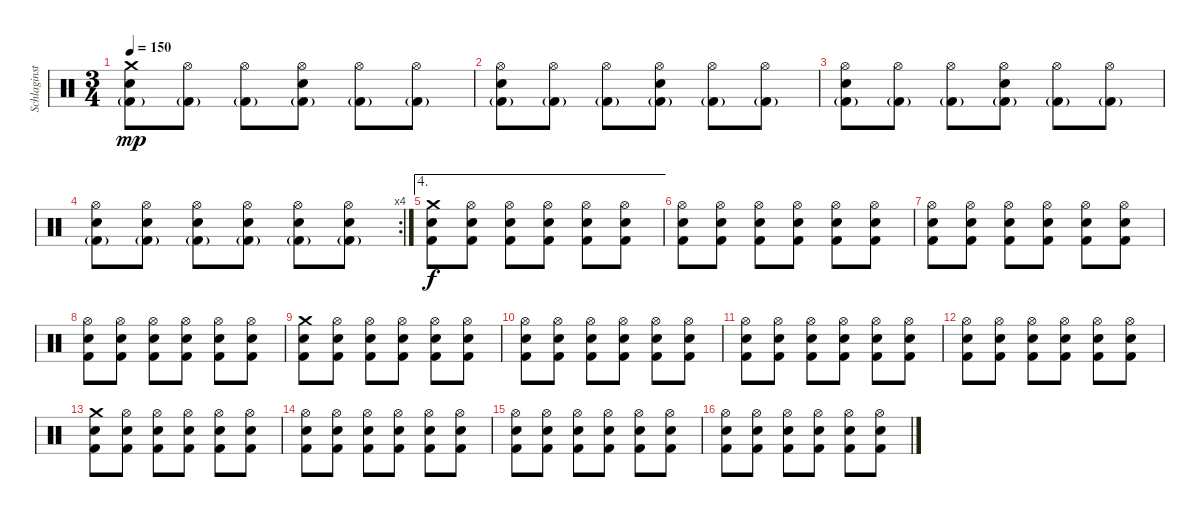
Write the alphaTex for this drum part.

\track ("Schlaginstrumente - Auswahl" "Schlaginst") {instrument percussion}
\staff {score}
\articulation defaults
\ts (3 4)
\tempo 150
\clef neutral
\ks c
("Crash medium (hit)" "Electric Snare (hit)" "Kick (hit) 2"{g}).8{dy mp} ("Hi-Hat (open)" "Kick (hit) 2"{g}).8 ("Hi-Hat (open)" "Kick (hit) 2"{g}).8 ("Hi-Hat (open)" "Electric Snare (hit)" "Kick (hit) 2"{g}).8 ("Hi-Hat (open)" "Kick (hit) 2"{g}).8 ("Hi-Hat (open)" "Kick (hit) 2"{g}).8 |
("Hi-Hat (open)" "Electric Snare (hit)" "Kick (hit) 2"{g}).8 ("Hi-Hat (open)" "Kick (hit) 2"{g}).8 ("Hi-Hat (open)" "Kick (hit) 2"{g}).8 ("Hi-Hat (open)" "Electric Snare (hit)" "Kick (hit) 2"{g}).8 ("Hi-Hat (open)" "Kick (hit) 2"{g}).8 ("Hi-Hat (open)" "Kick (hit) 2"{g}).8 |
("Hi-Hat (open)" "Electric Snare (hit)" "Kick (hit) 2"{g}).8 ("Hi-Hat (open)" "Kick (hit) 2"{g}).8 ("Hi-Hat (open)" "Kick (hit) 2"{g}).8 ("Hi-Hat (open)" "Electric Snare (hit)" "Kick (hit) 2"{g}).8 ("Hi-Hat (open)" "Kick (hit) 2"{g}).8 ("Hi-Hat (open)" "Kick (hit) 2"{g}).8 |
\rc 4
("Hi-Hat (open)" "Electric Snare (hit)" "Kick (hit) 2"{g}).8 ("Hi-Hat (open)" "Electric Snare (hit)" "Kick (hit) 2"{g}).8 ("Hi-Hat (open)" "Electric Snare (hit)" "Kick (hit) 2"{g}).8 ("Hi-Hat (open)" "Electric Snare (hit)" "Kick (hit) 2"{g}).8 ("Hi-Hat (open)" "Electric Snare (hit)" "Kick (hit) 2"{g}).8 ("Hi-Hat (open)" "Electric Snare (hit)" "Kick (hit) 2"{g}).8 |
\ae 4
("Crash medium (hit)" "Electric Snare (hit)" "Kick (hit) 2").8{dy f} ("Hi-Hat (open)" "Electric Snare (hit)" "Kick (hit) 2").8 ("Hi-Hat (open)" "Electric Snare (hit)" "Kick (hit) 2").8 ("Hi-Hat (open)" "Electric Snare (hit)" "Kick (hit) 2").8 ("Hi-Hat (open)" "Electric Snare (hit)" "Kick (hit) 2").8 ("Hi-Hat (open)" "Electric Snare (hit)" "Kick (hit) 2").8 |
("Hi-Hat (open)" "Electric Snare (hit)" "Kick (hit) 2").8 ("Hi-Hat (open)" "Electric Snare (hit)" "Kick (hit) 2").8 ("Hi-Hat (open)" "Electric Snare (hit)" "Kick (hit) 2").8 ("Hi-Hat (open)" "Electric Snare (hit)" "Kick (hit) 2").8 ("Hi-Hat (open)" "Electric Snare (hit)" "Kick (hit) 2").8 ("Hi-Hat (open)" "Electric Snare (hit)" "Kick (hit) 2").8 |
("Hi-Hat (open)" "Electric Snare (hit)" "Kick (hit) 2").8 ("Hi-Hat (open)" "Electric Snare (hit)" "Kick (hit) 2").8 ("Hi-Hat (open)" "Electric Snare (hit)" "Kick (hit) 2").8 ("Hi-Hat (open)" "Electric Snare (hit)" "Kick (hit) 2").8 ("Hi-Hat (open)" "Electric Snare (hit)" "Kick (hit) 2").8 ("Hi-Hat (open)" "Electric Snare (hit)" "Kick (hit) 2").8 |
("Hi-Hat (open)" "Electric Snare (hit)" "Kick (hit) 2").8 ("Hi-Hat (open)" "Electric Snare (hit)" "Kick (hit) 2").8 ("Hi-Hat (open)" "Electric Snare (hit)" "Kick (hit) 2").8 ("Hi-Hat (open)" "Electric Snare (hit)" "Kick (hit) 2").8 ("Hi-Hat (open)" "Electric Snare (hit)" "Kick (hit) 2").8 ("Hi-Hat (open)" "Electric Snare (hit)" "Kick (hit) 2").8 |
("Crash medium (hit)" "Electric Snare (hit)" "Kick (hit) 2").8 ("Hi-Hat (open)" "Electric Snare (hit)" "Kick (hit) 2").8 ("Hi-Hat (open)" "Electric Snare (hit)" "Kick (hit) 2").8 ("Hi-Hat (open)" "Electric Snare (hit)" "Kick (hit) 2").8 ("Hi-Hat (open)" "Electric Snare (hit)" "Kick (hit) 2").8 ("Hi-Hat (open)" "Electric Snare (hit)" "Kick (hit) 2").8 |
("Hi-Hat (open)" "Electric Snare (hit)" "Kick (hit) 2").8 ("Hi-Hat (open)" "Electric Snare (hit)" "Kick (hit) 2").8 ("Hi-Hat (open)" "Electric Snare (hit)" "Kick (hit) 2").8 ("Hi-Hat (open)" "Electric Snare (hit)" "Kick (hit) 2").8 ("Hi-Hat (open)" "Electric Snare (hit)" "Kick (hit) 2").8 ("Hi-Hat (open)" "Electric Snare (hit)" "Kick (hit) 2").8 |
("Hi-Hat (open)" "Electric Snare (hit)" "Kick (hit) 2").8 ("Hi-Hat (open)" "Electric Snare (hit)" "Kick (hit) 2").8 ("Hi-Hat (open)" "Electric Snare (hit)" "Kick (hit) 2").8 ("Hi-Hat (open)" "Electric Snare (hit)" "Kick (hit) 2").8 ("Hi-Hat (open)" "Electric Snare (hit)" "Kick (hit) 2").8 ("Hi-Hat (open)" "Electric Snare (hit)" "Kick (hit) 2").8 |
("Hi-Hat (open)" "Electric Snare (hit)" "Kick (hit) 2").8 ("Hi-Hat (open)" "Electric Snare (hit)" "Kick (hit) 2").8 ("Hi-Hat (open)" "Electric Snare (hit)" "Kick (hit) 2").8 ("Hi-Hat (open)" "Electric Snare (hit)" "Kick (hit) 2").8 ("Hi-Hat (open)" "Electric Snare (hit)" "Kick (hit) 2").8 ("Hi-Hat (open)" "Electric Snare (hit)" "Kick (hit) 2").8 |
("Crash medium (hit)" "Electric Snare (hit)" "Kick (hit) 2").8 ("Hi-Hat (open)" "Electric Snare (hit)" "Kick (hit) 2").8 ("Hi-Hat (open)" "Electric Snare (hit)" "Kick (hit) 2").8 ("Hi-Hat (open)" "Electric Snare (hit)" "Kick (hit) 2").8 ("Hi-Hat (open)" "Electric Snare (hit)" "Kick (hit) 2").8 ("Hi-Hat (open)" "Electric Snare (hit)" "Kick (hit) 2").8 |
("Hi-Hat (open)" "Electric Snare (hit)" "Kick (hit) 2").8 ("Hi-Hat (open)" "Electric Snare (hit)" "Kick (hit) 2").8 ("Hi-Hat (open)" "Electric Snare (hit)" "Kick (hit) 2").8 ("Hi-Hat (open)" "Electric Snare (hit)" "Kick (hit) 2").8 ("Hi-Hat (open)" "Electric Snare (hit)" "Kick (hit) 2").8 ("Hi-Hat (open)" "Electric Snare (hit)" "Kick (hit) 2").8 |
("Hi-Hat (open)" "Electric Snare (hit)" "Kick (hit) 2").8 ("Hi-Hat (open)" "Electric Snare (hit)" "Kick (hit) 2").8 ("Hi-Hat (open)" "Electric Snare (hit)" "Kick (hit) 2").8 ("Hi-Hat (open)" "Electric Snare (hit)" "Kick (hit) 2").8 ("Hi-Hat (open)" "Electric Snare (hit)" "Kick (hit) 2").8 ("Hi-Hat (open)" "Electric Snare (hit)" "Kick (hit) 2").8 |
("Hi-Hat (open)" "Electric Snare (hit)" "Kick (hit) 2").8 ("Hi-Hat (open)" "Electric Snare (hit)" "Kick (hit) 2").8 ("Hi-Hat (open)" "Electric Snare (hit)" "Kick (hit) 2").8 ("Hi-Hat (open)" "Electric Snare (hit)" "Kick (hit) 2").8 ("Hi-Hat (open)" "Electric Snare (hit)" "Kick (hit) 2").8 ("Hi-Hat (open)" "Electric Snare (hit)" "Kick (hit) 2").8
